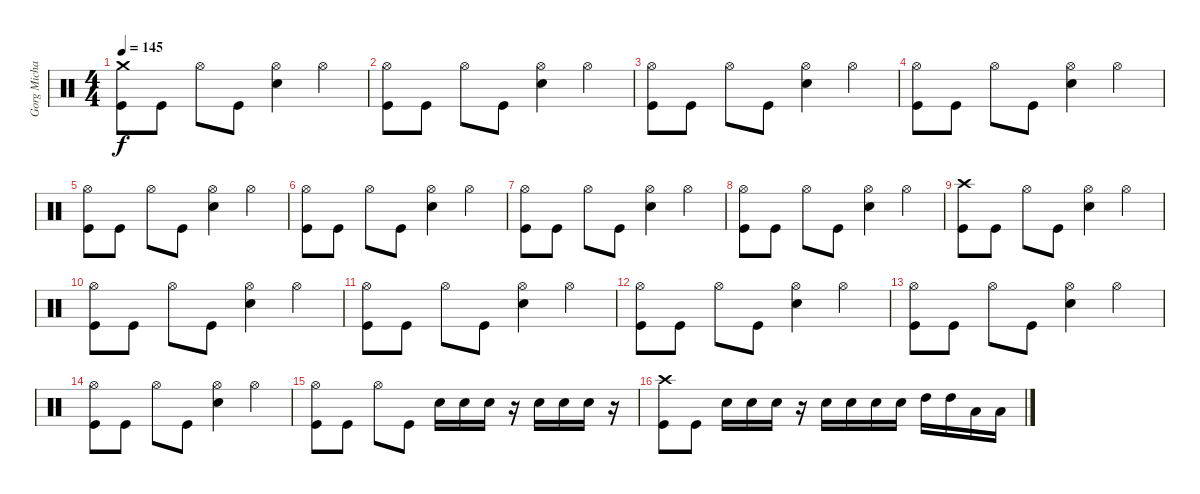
\track ("Gorg Michael" "Gorg Micha") {instrument percussion}
\staff {score}
\articulation defaults
\ts (4 4)
\tempo 145
\clef neutral
\ks c
("Crash medium (hit)" "Kick (hit)").8{dy f} "Kick (hit)".8 "Hi-Hat (open)".8 "Kick (hit)".8 ("Hi-Hat (open)" "Snare (hit) 2").4 "Hi-Hat (open)".4 |
("Hi-Hat (open)" "Kick (hit)").8 "Kick (hit)".8 "Hi-Hat (open)".8 "Kick (hit)".8 ("Hi-Hat (open)" "Snare (hit) 2").4 "Hi-Hat (open)".4 |
("Hi-Hat (open)" "Kick (hit)").8 "Kick (hit)".8 "Hi-Hat (open)".8 "Kick (hit)".8 ("Hi-Hat (open)" "Snare (hit) 2").4 "Hi-Hat (open)".4 |
("Hi-Hat (open)" "Kick (hit)").8 "Kick (hit)".8 "Hi-Hat (open)".8 "Kick (hit)".8 ("Hi-Hat (open)" "Snare (hit) 2").4 "Hi-Hat (open)".4 |
("Hi-Hat (open)" "Kick (hit)").8 "Kick (hit)".8 "Hi-Hat (open)".8 "Kick (hit)".8 ("Hi-Hat (open)" "Snare (hit) 2").4 "Hi-Hat (open)".4 |
("Hi-Hat (open)" "Kick (hit)").8 "Kick (hit)".8 "Hi-Hat (open)".8 "Kick (hit)".8 ("Hi-Hat (open)" "Snare (hit) 2").4 "Hi-Hat (open)".4 |
("Hi-Hat (open)" "Kick (hit)").8 "Kick (hit)".8 "Hi-Hat (open)".8 "Kick (hit)".8 ("Hi-Hat (open)" "Snare (hit) 2").4 "Hi-Hat (open)".4 |
("Hi-Hat (open)" "Kick (hit)").8 "Kick (hit)".8 "Hi-Hat (open)".8 "Kick (hit)".8 ("Hi-Hat (open)" "Snare (hit) 2").4 "Hi-Hat (open)".4 |
("Crash high (hit)" "Kick (hit)").8 "Kick (hit)".8 "Hi-Hat (open)".8 "Kick (hit)".8 ("Hi-Hat (open)" "Snare (hit) 2").4 "Hi-Hat (open)".4 |
("Hi-Hat (open)" "Kick (hit)").8 "Kick (hit)".8 "Hi-Hat (open)".8 "Kick (hit)".8 ("Hi-Hat (open)" "Snare (hit) 2").4 "Hi-Hat (open)".4 |
("Hi-Hat (open)" "Kick (hit)").8 "Kick (hit)".8 "Hi-Hat (open)".8 "Kick (hit)".8 ("Hi-Hat (open)" "Snare (hit) 2").4 "Hi-Hat (open)".4 |
("Hi-Hat (open)" "Kick (hit)").8 "Kick (hit)".8 "Hi-Hat (open)".8 "Kick (hit)".8 ("Hi-Hat (open)" "Snare (hit) 2").4 "Hi-Hat (open)".4 |
("Hi-Hat (open)" "Kick (hit)").8 "Kick (hit)".8 "Hi-Hat (open)".8 "Kick (hit)".8 ("Hi-Hat (open)" "Snare (hit) 2").4 "Hi-Hat (open)".4 |
("Hi-Hat (open)" "Kick (hit)").8 "Kick (hit)".8 "Hi-Hat (open)".8 "Kick (hit)".8 ("Hi-Hat (open)" "Snare (hit) 2").4 "Hi-Hat (open)".4 |
("Hi-Hat (open)" "Kick (hit)").8 "Kick (hit)".8 "Hi-Hat (open)".8 "Kick (hit)".8 "Snare (hit) 2".16 "Snare (hit) 2".16 "Snare (hit) 2".16 r.16 "Snare (hit) 2".16 "Snare (hit) 2".16 "Snare (hit) 2".16 r.16 |
("Crash high (hit)" "Kick (hit)").8 "Kick (hit)".8 "Snare (hit) 2".16 "Snare (hit) 2".16 "Snare (hit) 2".16 r.16 "Snare (hit) 2".16 "Snare (hit) 2".16 "Snare (hit) 2".16 "Snare (hit) 2".16 "High Tom (hit)".16 "High Tom (hit)".16 "Low Tom (hit)".16 "Low Tom (hit)".16
